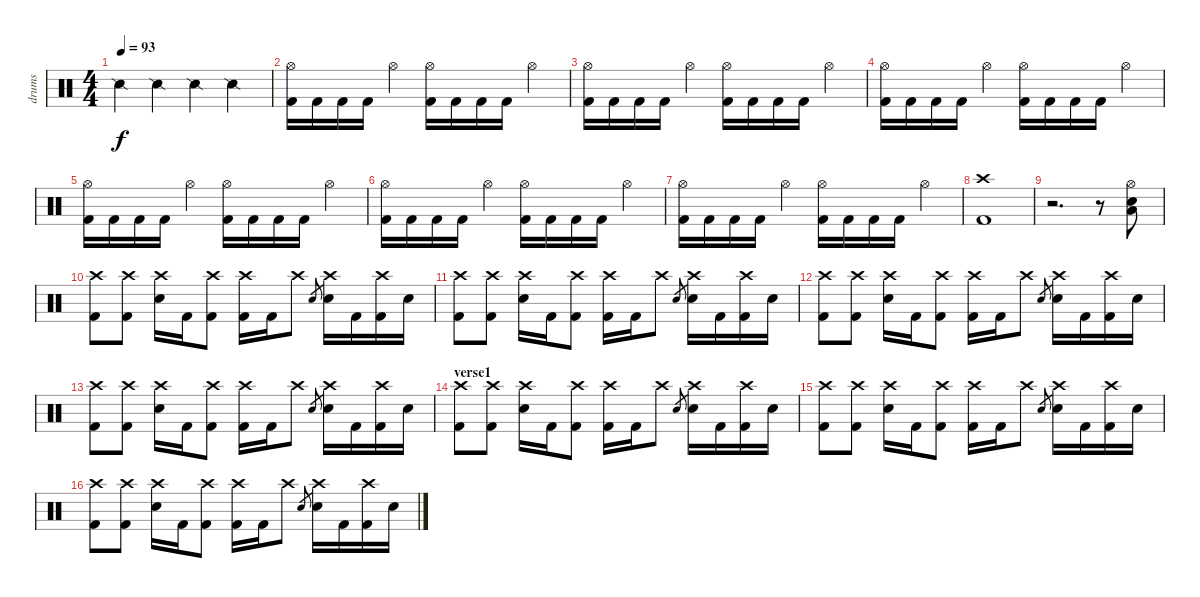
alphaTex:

\track ("drums" "drums") {instrument percussion}
\staff {score}
\articulation defaults
\ts (4 4)
\tempo 93
\clef neutral
\ks c "Snare (side stick) 2".4{dy f} "Snare (side stick) 2".4 "Snare (side stick) 2".4 "Snare (side stick) 2".4
|
("Hi-Hat (open)" "Kick (hit) 2").16 "Kick (hit) 2".16 "Kick (hit) 2".16 "Kick (hit) 2".16 "Hi-Hat (open)".4 ("Hi-Hat (open)" "Kick (hit) 2").16 "Kick (hit) 2".16 "Kick (hit) 2".16 "Kick (hit) 2".16 "Hi-Hat (open)".4 |
("Hi-Hat (open)" "Kick (hit) 2").16 "Kick (hit) 2".16 "Kick (hit) 2".16 "Kick (hit) 2".16 "Hi-Hat (open)".4 ("Hi-Hat (open)" "Kick (hit) 2").16 "Kick (hit) 2".16 "Kick (hit) 2".16 "Kick (hit) 2".16 "Hi-Hat (open)".4 |
("Hi-Hat (open)" "Kick (hit) 2").16 "Kick (hit) 2".16 "Kick (hit) 2".16 "Kick (hit) 2".16 "Hi-Hat (open)".4 ("Hi-Hat (open)" "Kick (hit) 2").16 "Kick (hit) 2".16 "Kick (hit) 2".16 "Kick (hit) 2".16 "Hi-Hat (open)".4 |
("Hi-Hat (open)" "Kick (hit) 2").16 "Kick (hit) 2".16 "Kick (hit) 2".16 "Kick (hit) 2".16 "Hi-Hat (open)".4 ("Hi-Hat (open)" "Kick (hit) 2").16 "Kick (hit) 2".16 "Kick (hit) 2".16 "Kick (hit) 2".16 "Hi-Hat (open)".4 |
("Hi-Hat (open)" "Kick (hit) 2").16 "Kick (hit) 2".16 "Kick (hit) 2".16 "Kick (hit) 2".16 "Hi-Hat (open)".4 ("Hi-Hat (open)" "Kick (hit) 2").16 "Kick (hit) 2".16 "Kick (hit) 2".16 "Kick (hit) 2".16 "Hi-Hat (open)".4 |
("Hi-Hat (open)" "Kick (hit) 2").16 "Kick (hit) 2".16 "Kick (hit) 2".16 "Kick (hit) 2".16 "Hi-Hat (open)".4 ("Hi-Hat (open)" "Kick (hit) 2").16 "Kick (hit) 2".16 "Kick (hit) 2".16 "Kick (hit) 2".16 "Hi-Hat (open)".4 |
("Crash high (hit)" "Kick (hit) 2").1 |
r.2{d} r.8 ("Hi-Hat (open)" "Low Floor Tom (hit)" "Electric Snare (hit)").8 |
("Crash high (hit)" "Kick (hit) 2").8 ("Crash high (hit)" "Kick (hit) 2").8 ("Crash high (hit)" "Electric Snare (hit)").16 "Kick (hit) 2".16 ("Crash high (hit)" "Kick (hit) 2").8 ("Crash high (hit)" "Kick (hit) 2").16 "Kick (hit) 2".16 "Crash high (hit)".8 "Electric Snare (hit)".8{gr} ("Crash high (hit)" "Electric Snare (hit)").16 "Kick (hit) 2".16 ("Crash high (hit)" "Kick (hit) 2").16 "Electric Snare (hit)".16 |
("Crash high (hit)" "Kick (hit) 2").8 ("Crash high (hit)" "Kick (hit) 2").8 ("Crash high (hit)" "Electric Snare (hit)").16 "Kick (hit) 2".16 ("Crash high (hit)" "Kick (hit) 2").8 ("Crash high (hit)" "Kick (hit) 2").16 "Kick (hit) 2".16 "Crash high (hit)".8 "Electric Snare (hit)".8{gr} ("Crash high (hit)" "Electric Snare (hit)").16 "Kick (hit) 2".16 ("Crash high (hit)" "Kick (hit) 2").16 "Electric Snare (hit)".16 |
("Crash high (hit)" "Kick (hit) 2").8 ("Crash high (hit)" "Kick (hit) 2").8 ("Crash high (hit)" "Electric Snare (hit)").16 "Kick (hit) 2".16 ("Crash high (hit)" "Kick (hit) 2").8 ("Crash high (hit)" "Kick (hit) 2").16 "Kick (hit) 2".16 "Crash high (hit)".8 "Electric Snare (hit)".8{gr} ("Crash high (hit)" "Electric Snare (hit)").16 "Kick (hit) 2".16 ("Crash high (hit)" "Kick (hit) 2").16 "Electric Snare (hit)".16 |
("Crash high (hit)" "Kick (hit) 2").8 ("Crash high (hit)" "Kick (hit) 2").8 ("Crash high (hit)" "Electric Snare (hit)").16 "Kick (hit) 2".16 ("Crash high (hit)" "Kick (hit) 2").8 ("Crash high (hit)" "Kick (hit) 2").16 "Kick (hit) 2".16 "Crash high (hit)".8 "Electric Snare (hit)".8{gr} ("Crash high (hit)" "Electric Snare (hit)").16 "Kick (hit) 2".16 ("Crash high (hit)" "Kick (hit) 2").16 "Electric Snare (hit)".16 |
\section ("" "verse1")
("Crash high (hit)" "Kick (hit) 2").8 ("Crash high (hit)" "Kick (hit) 2").8 ("Crash high (hit)" "Electric Snare (hit)").16 "Kick (hit) 2".16 ("Crash high (hit)" "Kick (hit) 2").8 ("Crash high (hit)" "Kick (hit) 2").16 "Kick (hit) 2".16 "Crash high (hit)".8 "Electric Snare (hit)".8{gr} ("Crash high (hit)" "Electric Snare (hit)").16 "Kick (hit) 2".16 ("Crash high (hit)" "Kick (hit) 2").16 "Electric Snare (hit)".16 |
("Crash high (hit)" "Kick (hit) 2").8 ("Crash high (hit)" "Kick (hit) 2").8 ("Crash high (hit)" "Electric Snare (hit)").16 "Kick (hit) 2".16 ("Crash high (hit)" "Kick (hit) 2").8 ("Crash high (hit)" "Kick (hit) 2").16 "Kick (hit) 2".16 "Crash high (hit)".8 "Electric Snare (hit)".8{gr} ("Crash high (hit)" "Electric Snare (hit)").16 "Kick (hit) 2".16 ("Crash high (hit)" "Kick (hit) 2").16 "Electric Snare (hit)".16 |
("Crash high (hit)" "Kick (hit) 2").8 ("Crash high (hit)" "Kick (hit) 2").8 ("Crash high (hit)" "Electric Snare (hit)").16 "Kick (hit) 2".16 ("Crash high (hit)" "Kick (hit) 2").8 ("Crash high (hit)" "Kick (hit) 2").16 "Kick (hit) 2".16 "Crash high (hit)".8 "Electric Snare (hit)".8{gr} ("Crash high (hit)" "Electric Snare (hit)").16 "Kick (hit) 2".16 ("Crash high (hit)" "Kick (hit) 2").16 "Electric Snare (hit)".16
